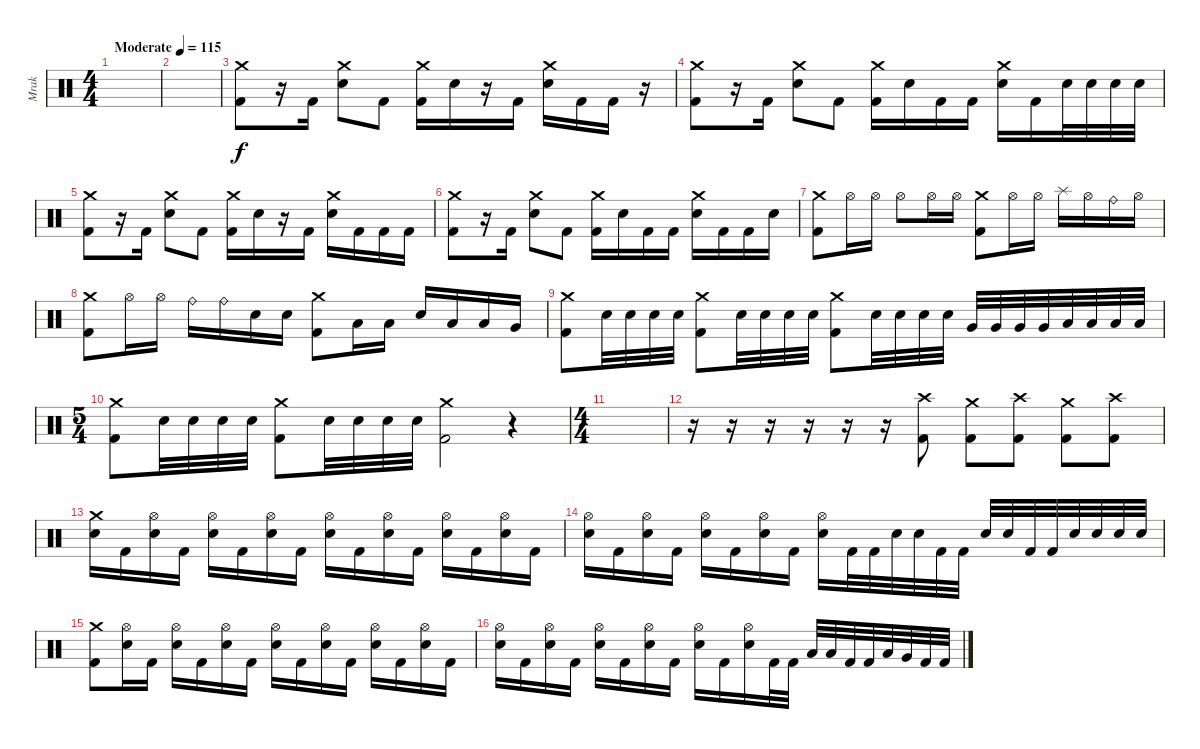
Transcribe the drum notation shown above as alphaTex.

\track ("Mrak" "Mrak") {instrument percussion}
\staff {score}
\articulation defaults
\ts (4 4)
\tempo (115 "Moderate")
\clef neutral
\ks c
|
|
("Crash medium (hit)" "Kick (hit) 2").8 r.16 "Kick (hit) 2".16 ("Crash medium (hit)" "Electric Snare (hit)").8 "Kick (hit) 2".8 ("Crash medium (hit)" "Kick (hit) 2").16 "Electric Snare (hit)".16 r.16 "Kick (hit) 2".16 ("Crash medium (hit)" "Electric Snare (hit)").16 "Kick (hit) 2".16 "Kick (hit) 2".16 r.16 |
("Crash medium (hit)" "Kick (hit) 2").8 r.16 "Kick (hit) 2".16 ("Crash medium (hit)" "Electric Snare (hit)").8 "Kick (hit) 2".8 ("Crash medium (hit)" "Kick (hit) 2").16 "Electric Snare (hit)".16 "Kick (hit) 2".16 "Kick (hit) 2".16 ("Crash medium (hit)" "Electric Snare (hit)").16 "Kick (hit) 2".16 "Electric Snare (hit)".32 "Electric Snare (hit)".32 "Electric Snare (hit)".32 "Electric Snare (hit)".32 |
("Crash medium (hit)" "Kick (hit) 2").8 r.16 "Kick (hit) 2".16 ("Crash medium (hit)" "Electric Snare (hit)").8 "Kick (hit) 2".8 ("Crash medium (hit)" "Kick (hit) 2").16 "Electric Snare (hit)".16 r.16 "Kick (hit) 2".16 ("Crash medium (hit)" "Electric Snare (hit)").16 "Kick (hit) 2".16 "Kick (hit) 2".16 "Kick (hit) 2".16 |
("Crash medium (hit)" "Kick (hit) 2").8 r.16 "Kick (hit) 2".16 ("Crash medium (hit)" "Electric Snare (hit)").8 "Kick (hit) 2".8 ("Crash medium (hit)" "Kick (hit) 2").16 "Electric Snare (hit)".16 "Kick (hit) 2".16 "Kick (hit) 2".16 ("Crash medium (hit)" "Electric Snare (hit)").16 "Kick (hit) 2".16 "Kick (hit) 2".16 "Electric Snare (hit)".16 |
("Crash medium (hit)" "Kick (hit) 2").8 "Hi-Hat (open)".16 "Hi-Hat (open)".16 "Hi-Hat (open)".8 "Hi-Hat (open)".16 "Hi-Hat (open)".16 ("Crash medium (hit)" "Kick (hit) 2").8 "Hi-Hat (open)".16 "Hi-Hat (open)".16 "Splash (hit)".16 "Hi-Hat (open)".16 "Ride (bell)".16 "Hi-Hat (open)".16 |
("Crash medium (hit)" "Kick (hit) 2").8 "Hi-Hat (open)".16 "Hi-Hat (open)".16 "Ride (bell)".16 "Ride (bell)".16 "Electric Snare (hit)".16 "Electric Snare (hit)".16 ("Crash medium (hit)" "Kick (hit) 2").8 "Low Tom (hit)".16 "Low Tom (hit)".16 "Electric Snare (hit)".16 "Low Tom (hit)".16 "Low Floor Tom (hit)".16 "Very Low Tom (hit)".16 |
("Crash medium (hit)" "Kick (hit) 2").8 "Electric Snare (hit)".32 "Electric Snare (hit)".32 "Electric Snare (hit)".32 "Electric Snare (hit)".32 ("Crash medium (hit)" "Kick (hit) 2").8 "Electric Snare (hit)".32 "Electric Snare (hit)".32 "Electric Snare (hit)".32 "Electric Snare (hit)".32 ("Crash medium (hit)" "Kick (hit) 2").8 "Electric Snare (hit)".32 "Electric Snare (hit)".32 "Electric Snare (hit)".32 "Electric Snare (hit)".32 "Very Low Tom (hit)".32 "Very Low Tom (hit)".32 "Very Low Tom (hit)".32 "Very Low Tom (hit)".32 "Low Floor Tom (hit)".32 "Low Floor Tom (hit)".32 "Low Floor Tom (hit)".32 "Low Floor Tom (hit)".32 |
\ts (5 4)
("Crash medium (hit)" "Kick (hit) 2").8 "Electric Snare (hit)".32 "Electric Snare (hit)".32 "Electric Snare (hit)".32 "Electric Snare (hit)".32 ("Crash medium (hit)" "Kick (hit) 2").8 "Electric Snare (hit)".32 "Electric Snare (hit)".32 "Electric Snare (hit)".32 "Electric Snare (hit)".32 ("Crash medium (hit)" "Kick (hit) 2").2 r.4 |
\ts (4 4)
|
r.16 r.16 r.16 r.16 r.16 r.16 ("Kick (hit) 2" "Crash high (hit)").8 ("Kick (hit) 2" "Crash medium (hit)").8 ("Kick (hit) 2" "Crash high (hit)").8 ("Kick (hit) 2" "Crash medium (hit)").8 ("Kick (hit) 2" "Crash high (hit)").8 |
("Electric Snare (hit)" "Crash medium (hit)").16 "Kick (hit) 2".16 ("Electric Snare (hit)" "Hi-Hat (open)").16 "Kick (hit) 2".16 ("Electric Snare (hit)" "Hi-Hat (open)").16 "Kick (hit) 2".16 ("Electric Snare (hit)" "Hi-Hat (open)").16 "Kick (hit) 2".16 ("Electric Snare (hit)" "Hi-Hat (open)").16 "Kick (hit) 2".16 ("Electric Snare (hit)" "Hi-Hat (open)").16 "Kick (hit) 2".16 ("Electric Snare (hit)" "Hi-Hat (open)").16 "Kick (hit) 2".16 ("Electric Snare (hit)" "Hi-Hat (open)").16 "Kick (hit) 2".16 |
("Electric Snare (hit)" "Hi-Hat (open)").16 "Kick (hit) 2".16 ("Electric Snare (hit)" "Hi-Hat (open)").16 "Kick (hit) 2".16 ("Electric Snare (hit)" "Hi-Hat (open)").16 "Kick (hit) 2".16 ("Electric Snare (hit)" "Hi-Hat (open)").16 "Kick (hit) 2".16 ("Electric Snare (hit)" "Hi-Hat (open)").16 "Kick (hit) 2".32 "Kick (hit) 2".32 "Electric Snare (hit)".32 "Electric Snare (hit)".32 "Kick (hit) 2".32 "Kick (hit) 2".32 "Electric Snare (hit)".32 "Electric Snare (hit)".32 "Kick (hit) 2".32 "Kick (hit) 2".32 "Electric Snare (hit)".32 "Electric Snare (hit)".32 "Electric Snare (hit)".32 "Electric Snare (hit)".32 |
("Kick (hit) 2" "Crash medium (hit)").8 ("Electric Snare (hit)" "Hi-Hat (open)").16 "Kick (hit) 2".16 ("Electric Snare (hit)" "Hi-Hat (open)").16 "Kick (hit) 2".16 ("Electric Snare (hit)" "Hi-Hat (open)").16 "Kick (hit) 2".16 ("Electric Snare (hit)" "Hi-Hat (open)").16 "Kick (hit) 2".16 ("Electric Snare (hit)" "Hi-Hat (open)").16 "Kick (hit) 2".16 ("Electric Snare (hit)" "Hi-Hat (open)").16 "Kick (hit) 2".16 ("Electric Snare (hit)" "Hi-Hat (open)").16 "Kick (hit) 2".16 |
("Electric Snare (hit)" "Hi-Hat (open)").16 "Kick (hit) 2".16 ("Electric Snare (hit)" "Hi-Hat (open)").16 "Kick (hit) 2".16 ("Electric Snare (hit)" "Hi-Hat (open)").16 "Kick (hit) 2".16 ("Electric Snare (hit)" "Hi-Hat (open)").16 "Kick (hit) 2".16 ("Electric Snare (hit)" "Hi-Hat (open)").16 "Kick (hit) 2".16 ("Electric Snare (hit)" "Hi-Hat (open)").16 "Kick (hit) 2".32 "Kick (hit) 2".32 "Low Floor Tom (hit)".32 "Low Tom (hit)".32 "Kick (hit) 2".32 "Kick (hit) 2".32 "Low Floor Tom (hit)".32 "Very Low Tom (hit)".32 "Kick (hit) 2".32 "Kick (hit) 2".32
